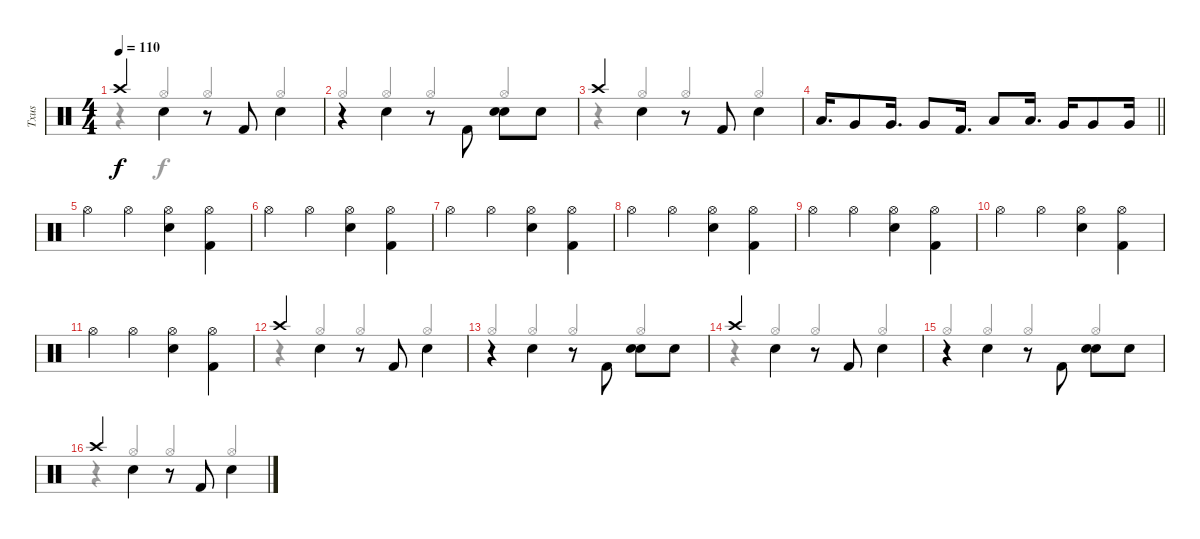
\track ("Txus" "Txus") {instrument percussion}
\staff {score}
\articulation defaults
\voice
\ts (4 4)
\tempo 110
\clef neutral
\ks c "Crash high (hit)".4{dy f} "Snare (hit) 2".4{beam Down}
r.8 "Kick (hit) 2".8 "Snare (hit) 2".4{beam Down} |
r.4 "Snare (hit) 2".4{beam Down} r.8 "Kick (hit) 2".8{beam Down} ("Snare (hit) 2" "Snare (hit) 2").8{beam Down} "Snare (hit) 2".8 |
"Crash high (hit)".4 "Snare (hit) 2".4{beam Down} r.8 "Kick (hit) 2".8 "Snare (hit) 2".4{beam Down} |
\barLineRight lightlight "Low Floor Tom (hit)".16{d} "Very Low Tom (hit)".8 "Very Low Tom (hit)".16{d} "Very Low Tom (hit)".8 "Kick (hit) 2".16{d} "Low Tom (hit)".8 "Low Floor Tom (hit)".16{d} "Very Low Tom (hit)".16 "Very Low Tom (hit)".8 "Very Low Tom (hit)".16
|
"Hi-Hat (open)".4 "Hi-Hat (open)".4 ("Hi-Hat (open)" "Snare (hit) 2").4 ("Hi-Hat (open)" "Kick (hit) 2").4 |
"Hi-Hat (open)".4 "Hi-Hat (open)".4 ("Hi-Hat (open)" "Snare (hit) 2").4 ("Hi-Hat (open)" "Kick (hit) 2").4 |
"Hi-Hat (open)".4 "Hi-Hat (open)".4 ("Hi-Hat (open)" "Snare (hit) 2").4 ("Hi-Hat (open)" "Kick (hit) 2").4 |
"Hi-Hat (open)".4 "Hi-Hat (open)".4 ("Hi-Hat (open)" "Snare (hit) 2").4 ("Hi-Hat (open)" "Kick (hit) 2").4 |
"Hi-Hat (open)".4 "Hi-Hat (open)".4 ("Hi-Hat (open)" "Snare (hit) 2").4 ("Hi-Hat (open)" "Kick (hit) 2").4 |
"Hi-Hat (open)".4 "Hi-Hat (open)".4 ("Hi-Hat (open)" "Snare (hit) 2").4 ("Hi-Hat (open)" "Kick (hit) 2").4 |
"Hi-Hat (open)".4 "Hi-Hat (open)".4 ("Hi-Hat (open)" "Snare (hit) 2").4 ("Hi-Hat (open)" "Kick (hit) 2").4 |
"Crash high (hit)".4 "Snare (hit) 2".4{beam Down} r.8 "Kick (hit) 2".8 "Snare (hit) 2".4{beam Down} |
r.4 "Snare (hit) 2".4{beam Down} r.8 "Kick (hit) 2".8{beam Down} ("Snare (hit) 2" "Snare (hit) 2").8{beam Down} "Snare (hit) 2".8 |
"Crash high (hit)".4 "Snare (hit) 2".4{beam Down} r.8 "Kick (hit) 2".8 "Snare (hit) 2".4{beam Down} |
r.4 "Snare (hit) 2".4{beam Down} r.8 "Kick (hit) 2".8{beam Down} ("Snare (hit) 2" "Snare (hit) 2").8{beam Down} "Snare (hit) 2".8 |
"Crash high (hit)".4 "Snare (hit) 2".4{beam Down} r.8 "Kick (hit) 2".8 "Snare (hit) 2".4{beam Down}
\voice
\clef neutral
\ottava regular
\simile none
\ks c
r.4{dy f beam Up} "Hi-Hat (open)".4{beam Up} "Hi-Hat (open)".4{beam Up} "Hi-Hat (open)".4{beam Up} |
"Hi-Hat (open)".4{beam Up} "Hi-Hat (open)".4{beam Up} "Hi-Hat (open)".4{beam Up} "Hi-Hat (open)".4{beam Up} |
r.4{beam Up} "Hi-Hat (open)".4{beam Up} "Hi-Hat (open)".4{beam Up} "Hi-Hat (open)".4{beam Up} |
\barLineRight lightlight
|
|
|
|
|
|
|
|
r.4{beam Up} "Hi-Hat (open)".4{beam Up} "Hi-Hat (open)".4{beam Up} "Hi-Hat (open)".4{beam Up} |
"Hi-Hat (open)".4{beam Up} "Hi-Hat (open)".4{beam Up} "Hi-Hat (open)".4{beam Up} "Hi-Hat (open)".4{beam Up} |
r.4{beam Up} "Hi-Hat (open)".4{beam Up} "Hi-Hat (open)".4{beam Up} "Hi-Hat (open)".4{beam Up} |
"Hi-Hat (open)".4{beam Up} "Hi-Hat (open)".4{beam Up} "Hi-Hat (open)".4{beam Up} "Hi-Hat (open)".4{beam Up} |
r.4{beam Up} "Hi-Hat (open)".4{beam Up} "Hi-Hat (open)".4{beam Up} "Hi-Hat (open)".4{beam Up}
